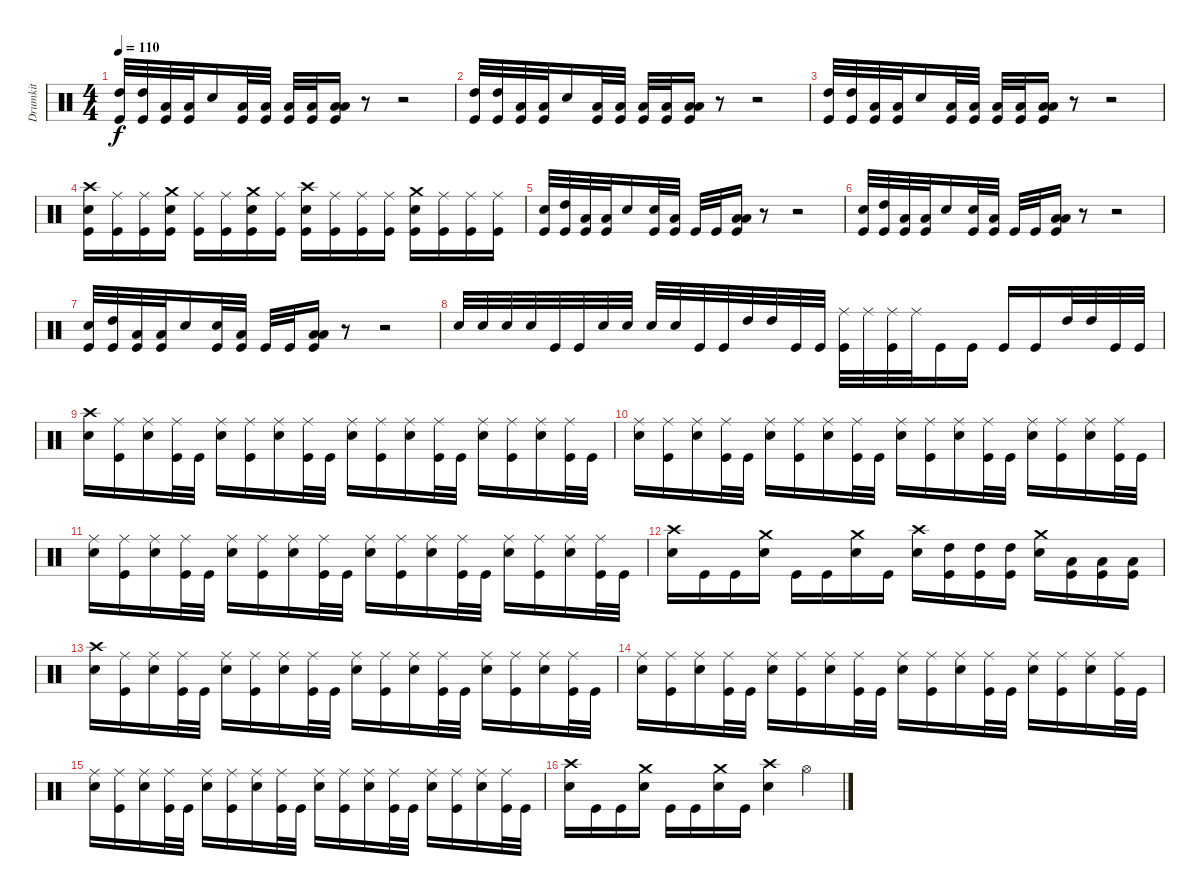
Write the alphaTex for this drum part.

\track ("Drumkit" "Drumkit") {instrument percussion}
\staff {score}
\articulation defaults
\ts (4 4)
\tempo 110
\clef neutral
\ks c
("High Tom (hit)" "Kick (hit)").32{dy f} ("High Tom (hit)" "Kick (hit)").32 ("Low Tom (hit)" "Kick (hit)").32 ("Low Tom (hit)" "Kick (hit)").32 "Snare (hit) 2".16 ("Low Tom (hit)" "Kick (hit)").32 ("Low Tom (hit)" "Kick (hit)").32 ("Low Floor Tom (hit)" "Kick (hit)").32 ("Low Floor Tom (hit)" "Kick (hit)").32 ("Low Tom (hit)" "Low Floor Tom (hit)" "Kick (hit)").16 r.8 r.2 |
("High Tom (hit)" "Kick (hit)").32 ("High Tom (hit)" "Kick (hit)").32 ("Low Tom (hit)" "Kick (hit)").32 ("Low Tom (hit)" "Kick (hit)").32 "Snare (hit) 2".16 ("Low Tom (hit)" "Kick (hit)").32 ("Low Tom (hit)" "Kick (hit)").32 ("Low Floor Tom (hit)" "Kick (hit)").32 ("Low Floor Tom (hit)" "Kick (hit)").32 ("Low Tom (hit)" "Low Floor Tom (hit)" "Kick (hit)").16 r.8 r.2 |
("High Tom (hit)" "Kick (hit)").32 ("High Tom (hit)" "Kick (hit)").32 ("Low Tom (hit)" "Kick (hit)").32 ("Low Tom (hit)" "Kick (hit)").32 "Snare (hit) 2".16 ("Low Tom (hit)" "Kick (hit)").32 ("Low Tom (hit)" "Kick (hit)").32 ("Low Floor Tom (hit)" "Kick (hit)").32 ("Low Floor Tom (hit)" "Kick (hit)").32 ("Low Tom (hit)" "Low Floor Tom (hit)" "Kick (hit)").16 r.8 r.2 |
("Crash high (hit)" "Snare (hit) 2" "Kick (hit)").16 ("Ride (middle)" "Kick (hit)").16 ("Ride (middle)" "Kick (hit)").16 ("Crash medium (hit)" "Snare (hit) 2" "Kick (hit)").16 ("Ride (middle)" "Kick (hit)").16 ("Ride (middle)" "Kick (hit)").16 ("Crash medium (hit)" "Snare (hit) 2" "Kick (hit)").16 ("Ride (middle)" "Kick (hit)").16 ("Crash high (hit)" "Snare (hit) 2" "Kick (hit)").16 ("Ride (middle)" "Kick (hit)").16 ("Ride (middle)" "Kick (hit)").16 ("Ride (middle)" "Kick (hit)").16 ("Crash medium (hit)" "Snare (hit) 2" "Kick (hit)").16 ("Ride (middle)" "Kick (hit)").16 ("Ride (middle)" "Kick (hit)").16 ("Ride (middle)" "Kick (hit)").16 |
("Snare (hit) 2" "Kick (hit)").32 ("High Tom (hit)" "Kick (hit)").32 ("Low Tom (hit)" "Kick (hit)").32 ("Low Tom (hit)" "Kick (hit)").32 "Snare (hit) 2".16 ("Snare (hit) 2" "Kick (hit)").32 ("Low Tom (hit)" "Kick (hit)").32 "Kick (hit)".32 "Kick (hit)".32 ("Low Tom (hit)" "Low Floor Tom (hit)" "Kick (hit)").16 r.8 r.2 |
("Snare (hit) 2" "Kick (hit)").32 ("High Tom (hit)" "Kick (hit)").32 ("Low Tom (hit)" "Kick (hit)").32 ("Low Tom (hit)" "Kick (hit)").32 "Snare (hit) 2".16 ("Snare (hit) 2" "Kick (hit)").32 ("Low Tom (hit)" "Kick (hit)").32 "Kick (hit)".32 "Kick (hit)".32 ("Low Tom (hit)" "Low Floor Tom (hit)" "Kick (hit)").16 r.8 r.2 |
("Snare (hit) 2" "Kick (hit)").32 ("High Tom (hit)" "Kick (hit)").32 ("Low Tom (hit)" "Kick (hit)").32 ("Low Tom (hit)" "Kick (hit)").32 "Snare (hit) 2".16 ("Snare (hit) 2" "Kick (hit)").32 ("Low Tom (hit)" "Kick (hit)").32 "Kick (hit)".32 "Kick (hit)".32 ("Low Tom (hit)" "Low Floor Tom (hit)" "Kick (hit)").16 r.8 r.2 |
"Snare (hit) 2".32 "Snare (hit) 2".32 "Snare (hit) 2".32 "Snare (hit) 2".32 "Kick (hit)".32 "Kick (hit)".32 "Snare (hit) 2".32 "Snare (hit) 2".32 "Snare (hit) 2".32 "Snare (hit) 2".32 "Kick (hit)".32 "Kick (hit)".32 "High Tom (hit)".32 "High Tom (hit)".32 "Kick (hit)".32 "Kick (hit)".32 ("Ride (middle)" "Kick (hit)").32 "Ride (middle)".32 ("Ride (middle)" "Kick (hit)").32 "Ride (middle)".32 "Kick (hit)".16 "Kick (hit)".16 "Kick (hit)".16 "Kick (hit)".16 "High Tom (hit)".32 "High Tom (hit)".32 "Kick (hit)".32 "Kick (hit)".32 |
("Crash high (hit)" "Snare (hit) 2").16 ("Ride (middle)" "Kick (hit)").16 ("Ride (middle)" "Snare (hit) 2").16 ("Ride (middle)" "Kick (hit)").32 "Kick (hit)".32 ("Ride (middle)" "Snare (hit) 2").16 ("Ride (middle)" "Kick (hit)").16 ("Ride (middle)" "Snare (hit) 2").16 ("Ride (middle)" "Kick (hit)").32 "Kick (hit)".32 ("Ride (middle)" "Snare (hit) 2").16 ("Ride (middle)" "Kick (hit)").16 ("Ride (middle)" "Snare (hit) 2").16 ("Ride (middle)" "Kick (hit)").32 "Kick (hit)".32 ("Ride (middle)" "Snare (hit) 2").16 ("Ride (middle)" "Kick (hit)").16 ("Ride (middle)" "Snare (hit) 2").16 ("Ride (middle)" "Kick (hit)").32 "Kick (hit)".32 |
("Ride (middle)" "Snare (hit) 2").16 ("Ride (middle)" "Kick (hit)").16 ("Ride (middle)" "Snare (hit) 2").16 ("Ride (middle)" "Kick (hit)").32 "Kick (hit)".32 ("Ride (middle)" "Snare (hit) 2").16 ("Ride (middle)" "Kick (hit)").16 ("Ride (middle)" "Snare (hit) 2").16 ("Ride (middle)" "Kick (hit)").32 "Kick (hit)".32 ("Ride (middle)" "Snare (hit) 2").16 ("Ride (middle)" "Kick (hit)").16 ("Ride (middle)" "Snare (hit) 2").16 ("Ride (middle)" "Kick (hit)").32 "Kick (hit)".32 ("Ride (middle)" "Snare (hit) 2").16 ("Ride (middle)" "Kick (hit)").16 ("Ride (middle)" "Snare (hit) 2").16 ("Ride (middle)" "Kick (hit)").32 "Kick (hit)".32 |
("Ride (middle)" "Snare (hit) 2").16 ("Ride (middle)" "Kick (hit)").16 ("Ride (middle)" "Snare (hit) 2").16 ("Ride (middle)" "Kick (hit)").32 "Kick (hit)".32 ("Ride (middle)" "Snare (hit) 2").16 ("Ride (middle)" "Kick (hit)").16 ("Ride (middle)" "Snare (hit) 2").16 ("Ride (middle)" "Kick (hit)").32 "Kick (hit)".32 ("Ride (middle)" "Snare (hit) 2").16 ("Ride (middle)" "Kick (hit)").16 ("Ride (middle)" "Snare (hit) 2").16 ("Ride (middle)" "Kick (hit)").32 "Kick (hit)".32 ("Ride (middle)" "Snare (hit) 2").16 ("Ride (middle)" "Kick (hit)").16 ("Ride (middle)" "Snare (hit) 2").16 ("Ride (middle)" "Kick (hit)").32 "Kick (hit)".32 |
("Crash high (hit)" "Snare (hit) 2").16 "Kick (hit)".16 "Kick (hit)".16 ("Crash medium (hit)" "Snare (hit) 2").16 "Kick (hit)".16 "Kick (hit)".16 ("Crash medium (hit)" "Snare (hit) 2").16 "Kick (hit)".16 ("Crash high (hit)" "Snare (hit) 2").16 ("High Tom (hit)" "Kick (hit)").16 ("High Tom (hit)" "Kick (hit)").16 ("High Tom (hit)" "Kick (hit)").16 ("Crash medium (hit)" "Snare (hit) 2").16 ("Low Tom (hit)" "Kick (hit)").16 ("Low Tom (hit)" "Kick (hit)").16 ("Low Tom (hit)" "Kick (hit)").16 |
("Crash high (hit)" "Snare (hit) 2").16 ("Ride (middle)" "Kick (hit)").16 ("Ride (middle)" "Snare (hit) 2").16 ("Ride (middle)" "Kick (hit)").32 "Kick (hit)".32 ("Ride (middle)" "Snare (hit) 2").16 ("Ride (middle)" "Kick (hit)").16 ("Ride (middle)" "Snare (hit) 2").16 ("Ride (middle)" "Kick (hit)").32 "Kick (hit)".32 ("Ride (middle)" "Snare (hit) 2").16 ("Ride (middle)" "Kick (hit)").16 ("Ride (middle)" "Snare (hit) 2").16 ("Ride (middle)" "Kick (hit)").32 "Kick (hit)".32 ("Ride (middle)" "Snare (hit) 2").16 ("Ride (middle)" "Kick (hit)").16 ("Ride (middle)" "Snare (hit) 2").16 ("Ride (middle)" "Kick (hit)").32 "Kick (hit)".32 |
("Ride (middle)" "Snare (hit) 2").16 ("Ride (middle)" "Kick (hit)").16 ("Ride (middle)" "Snare (hit) 2").16 ("Ride (middle)" "Kick (hit)").32 "Kick (hit)".32 ("Ride (middle)" "Snare (hit) 2").16 ("Ride (middle)" "Kick (hit)").16 ("Ride (middle)" "Snare (hit) 2").16 ("Ride (middle)" "Kick (hit)").32 "Kick (hit)".32 ("Ride (middle)" "Snare (hit) 2").16 ("Ride (middle)" "Kick (hit)").16 ("Ride (middle)" "Snare (hit) 2").16 ("Ride (middle)" "Kick (hit)").32 "Kick (hit)".32 ("Ride (middle)" "Snare (hit) 2").16 ("Ride (middle)" "Kick (hit)").16 ("Ride (middle)" "Snare (hit) 2").16 ("Ride (middle)" "Kick (hit)").32 "Kick (hit)".32 |
("Ride (middle)" "Snare (hit) 2").16 ("Ride (middle)" "Kick (hit)").16 ("Ride (middle)" "Snare (hit) 2").16 ("Ride (middle)" "Kick (hit)").32 "Kick (hit)".32 ("Ride (middle)" "Snare (hit) 2").16 ("Ride (middle)" "Kick (hit)").16 ("Ride (middle)" "Snare (hit) 2").16 ("Ride (middle)" "Kick (hit)").32 "Kick (hit)".32 ("Ride (middle)" "Snare (hit) 2").16 ("Ride (middle)" "Kick (hit)").16 ("Ride (middle)" "Snare (hit) 2").16 ("Ride (middle)" "Kick (hit)").32 "Kick (hit)".32 ("Ride (middle)" "Snare (hit) 2").16 ("Ride (middle)" "Kick (hit)").16 ("Ride (middle)" "Snare (hit) 2").16 ("Ride (middle)" "Kick (hit)").32 "Kick (hit)".32 |
("Crash high (hit)" "Snare (hit) 2").16 "Kick (hit)".16 "Kick (hit)".16 ("Crash medium (hit)" "Snare (hit) 2").16 "Kick (hit)".16 "Kick (hit)".16 ("Crash medium (hit)" "Snare (hit) 2").16 "Kick (hit)".16 ("Crash high (hit)" "Snare (hit) 2").4 "Hi-Hat (open)".4
